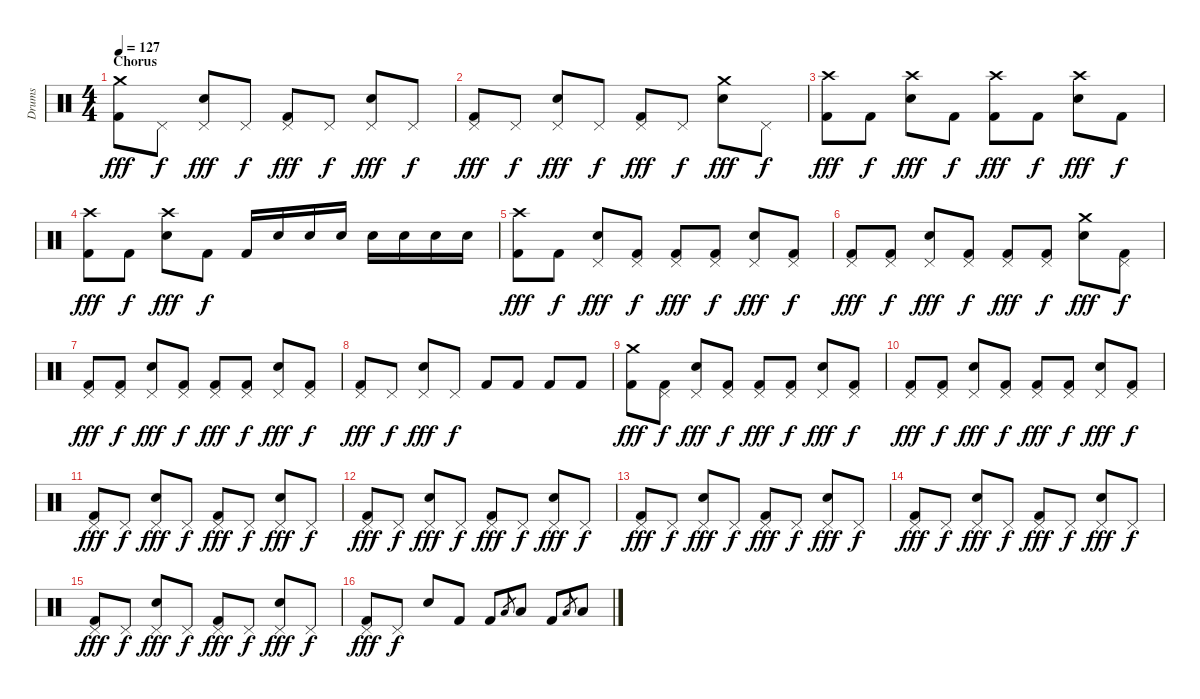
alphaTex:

\track ("Drums" "Drums") {instrument percussion}
\staff {score}
\articulation defaults
\ts (4 4)
\section ("" "Chorus")
\tempo 127
\clef neutral
\ks c
("Crash medium (hit)" "Kick (hit) 2").8{dy fff} "Pedal Hi-Hat (hit)".8{dy f} ("Pedal Hi-Hat (hit)" "Snare (hit) 2").8{dy fff} "Pedal Hi-Hat (hit)".8{dy f} ("Pedal Hi-Hat (hit)" "Kick (hit) 2").8{dy fff} "Pedal Hi-Hat (hit)".8{dy f} ("Pedal Hi-Hat (hit)" "Snare (hit) 2").8{dy fff} "Pedal Hi-Hat (hit)".8{dy f} |
("Pedal Hi-Hat (hit)" "Kick (hit) 2").8{dy fff} "Pedal Hi-Hat (hit)".8{dy f} ("Pedal Hi-Hat (hit)" "Snare (hit) 2").8{dy fff} "Pedal Hi-Hat (hit)".8{dy f} ("Pedal Hi-Hat (hit)" "Kick (hit) 2").8{dy fff} "Pedal Hi-Hat (hit)".8{dy f} ("Crash medium (hit)" "Snare (hit) 2").8{dy fff} "Pedal Hi-Hat (hit)".8{dy f} |
("Crash high (hit)" "Kick (hit) 2").8{dy fff} "Kick (hit) 2".8{dy f} ("Crash high (hit)" "Snare (hit) 2").8{dy fff} "Kick (hit) 2".8{dy f} ("Crash high (hit)" "Kick (hit) 2").8{dy fff} "Kick (hit) 2".8{dy f} ("Crash high (hit)" "Snare (hit) 2").8{dy fff} "Kick (hit) 2".8{dy f} |
("Crash high (hit)" "Kick (hit) 2").8{dy fff} "Kick (hit) 2".8{dy f} ("Crash high (hit)" "Snare (hit) 2").8{dy fff} "Kick (hit) 2".8{dy f} "Kick (hit) 2".16 "Snare (hit) 2".16 "Snare (hit) 2".16 "Snare (hit) 2".16 "Snare (hit) 2".16 "Snare (hit) 2".16 "Snare (hit) 2".16 "Snare (hit) 2".16 |
("Crash high (hit)" "Kick (hit) 2").8{dy fff} "Kick (hit) 2".8{dy f} ("Pedal Hi-Hat (hit)" "Snare (hit) 2").8{dy fff} ("Pedal Hi-Hat (hit)" "Kick (hit) 2").8{dy f} ("Pedal Hi-Hat (hit)" "Kick (hit) 2").8{dy fff} ("Pedal Hi-Hat (hit)" "Kick (hit) 2").8{dy f} ("Pedal Hi-Hat (hit)" "Snare (hit) 2").8{dy fff} ("Pedal Hi-Hat (hit)" "Kick (hit) 2").8{dy f} |
("Pedal Hi-Hat (hit)" "Kick (hit) 2").8{dy fff} ("Pedal Hi-Hat (hit)" "Kick (hit) 2").8{dy f} ("Pedal Hi-Hat (hit)" "Snare (hit) 2").8{dy fff} ("Pedal Hi-Hat (hit)" "Kick (hit) 2").8{dy f} ("Pedal Hi-Hat (hit)" "Kick (hit) 2").8{dy fff} ("Pedal Hi-Hat (hit)" "Kick (hit) 2").8{dy f} ("Crash medium (hit)" "Snare (hit) 2").8{dy fff} ("Pedal Hi-Hat (hit)" "Kick (hit) 2").8{dy f} |
("Pedal Hi-Hat (hit)" "Kick (hit) 2").8{dy fff} ("Pedal Hi-Hat (hit)" "Kick (hit) 2").8{dy f} ("Pedal Hi-Hat (hit)" "Snare (hit) 2").8{dy fff} ("Pedal Hi-Hat (hit)" "Kick (hit) 2").8{dy f} ("Pedal Hi-Hat (hit)" "Kick (hit) 2").8{dy fff} ("Pedal Hi-Hat (hit)" "Kick (hit) 2").8{dy f} ("Pedal Hi-Hat (hit)" "Snare (hit) 2").8{dy fff} ("Pedal Hi-Hat (hit)" "Kick (hit) 2").8{dy f} |
("Pedal Hi-Hat (hit)" "Kick (hit) 2").8{dy fff} "Pedal Hi-Hat (hit)".8{dy f} ("Pedal Hi-Hat (hit)" "Snare (hit) 2").8{dy fff} "Pedal Hi-Hat (hit)".8{dy f} "Kick (hit) 2".8 "Kick (hit) 2".8 "Kick (hit) 2".8 "Kick (hit) 2".8 |
("Crash medium (hit)" "Kick (hit) 2").8{dy fff} ("Pedal Hi-Hat (hit)" "Kick (hit) 2").8{dy f} ("Pedal Hi-Hat (hit)" "Snare (hit) 2").8{dy fff} ("Pedal Hi-Hat (hit)" "Kick (hit) 2").8{dy f} ("Pedal Hi-Hat (hit)" "Kick (hit) 2").8{dy fff} ("Pedal Hi-Hat (hit)" "Kick (hit) 2").8{dy f} ("Pedal Hi-Hat (hit)" "Snare (hit) 2").8{dy fff} ("Pedal Hi-Hat (hit)" "Kick (hit) 2").8{dy f} |
("Pedal Hi-Hat (hit)" "Kick (hit) 2").8{dy fff} ("Pedal Hi-Hat (hit)" "Kick (hit) 2").8{dy f} ("Pedal Hi-Hat (hit)" "Snare (hit) 2").8{dy fff} ("Pedal Hi-Hat (hit)" "Kick (hit) 2").8{dy f} ("Pedal Hi-Hat (hit)" "Kick (hit) 2").8{dy fff} ("Pedal Hi-Hat (hit)" "Kick (hit) 2").8{dy f} ("Pedal Hi-Hat (hit)" "Snare (hit) 2").8{dy fff} ("Pedal Hi-Hat (hit)" "Kick (hit) 2").8{dy f} |
("Pedal Hi-Hat (hit)" "Kick (hit) 2").8{dy fff} "Pedal Hi-Hat (hit)".8{dy f} ("Pedal Hi-Hat (hit)" "Snare (hit) 2").8{dy fff} "Pedal Hi-Hat (hit)".8{dy f} ("Pedal Hi-Hat (hit)" "Kick (hit) 2").8{dy fff} "Pedal Hi-Hat (hit)".8{dy f} ("Pedal Hi-Hat (hit)" "Snare (hit) 2").8{dy fff} "Pedal Hi-Hat (hit)".8{dy f} |
("Pedal Hi-Hat (hit)" "Kick (hit) 2").8{dy fff} "Pedal Hi-Hat (hit)".8{dy f} ("Pedal Hi-Hat (hit)" "Snare (hit) 2").8{dy fff} "Pedal Hi-Hat (hit)".8{dy f} ("Pedal Hi-Hat (hit)" "Kick (hit) 2").8{dy fff} "Pedal Hi-Hat (hit)".8{dy f} ("Pedal Hi-Hat (hit)" "Snare (hit) 2").8{dy fff} "Pedal Hi-Hat (hit)".8{dy f} |
("Pedal Hi-Hat (hit)" "Kick (hit) 2").8{dy fff} "Pedal Hi-Hat (hit)".8{dy f} ("Pedal Hi-Hat (hit)" "Snare (hit) 2").8{dy fff} "Pedal Hi-Hat (hit)".8{dy f} ("Pedal Hi-Hat (hit)" "Kick (hit) 2").8{dy fff} "Pedal Hi-Hat (hit)".8{dy f} ("Pedal Hi-Hat (hit)" "Snare (hit) 2").8{dy fff} "Pedal Hi-Hat (hit)".8{dy f} |
("Pedal Hi-Hat (hit)" "Kick (hit) 2").8{dy fff} "Pedal Hi-Hat (hit)".8{dy f} ("Pedal Hi-Hat (hit)" "Snare (hit) 2").8{dy fff} "Pedal Hi-Hat (hit)".8{dy f} ("Pedal Hi-Hat (hit)" "Kick (hit) 2").8{dy fff} "Pedal Hi-Hat (hit)".8{dy f} ("Pedal Hi-Hat (hit)" "Snare (hit) 2").8{dy fff} "Pedal Hi-Hat (hit)".8{dy f} |
("Pedal Hi-Hat (hit)" "Kick (hit) 2").8{dy fff} "Pedal Hi-Hat (hit)".8{dy f} ("Pedal Hi-Hat (hit)" "Snare (hit) 2").8{dy fff} "Pedal Hi-Hat (hit)".8{dy f} ("Pedal Hi-Hat (hit)" "Kick (hit) 2").8{dy fff} "Pedal Hi-Hat (hit)".8{dy f} ("Pedal Hi-Hat (hit)" "Snare (hit) 2").8{dy fff} "Pedal Hi-Hat (hit)".8{dy f} |
("Pedal Hi-Hat (hit)" "Kick (hit) 2").8{dy fff} "Pedal Hi-Hat (hit)".8{dy f} "Snare (hit) 2".8 "Kick (hit) 2".8 "Kick (hit) 2".8 "Low Tom (hit)".8{gr} "Low Tom (hit)".8 "Kick (hit) 2".8 "Low Floor Tom (hit)".8{gr} "Low Floor Tom (hit)".8
